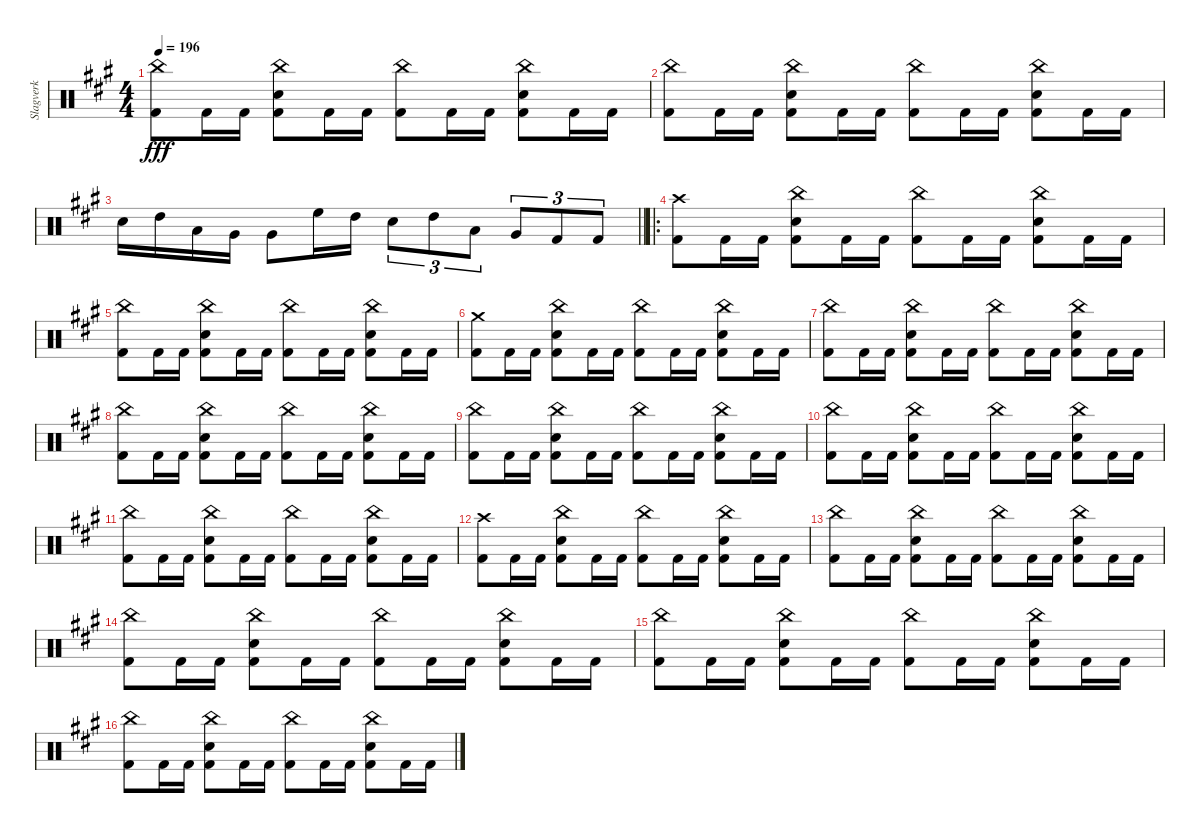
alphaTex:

\track ("Slagverk" "Slagverk") {instrument percussion}
\staff {score}
\articulation defaults
\ts (4 4)
\tempo 196
\clef neutral
\ks a
("China (hit)" "Kick (hit) 2").8{dy fff} "Kick (hit) 2".16 "Kick (hit) 2".16 ("China (hit)" "Snare (hit) 2" "Kick (hit) 2").8 "Kick (hit) 2".16 "Kick (hit) 2".16 ("China (hit)" "Kick (hit) 2").8 "Kick (hit) 2".16 "Kick (hit) 2".16 ("China (hit)" "Snare (hit) 2" "Kick (hit) 2").8 "Kick (hit) 2".16 "Kick (hit) 2".16 |
("China (hit)" "Kick (hit) 2").8 "Kick (hit) 2".16 "Kick (hit) 2".16 ("China (hit)" "Snare (hit) 2" "Kick (hit) 2").8 "Kick (hit) 2".16 "Kick (hit) 2".16 ("China (hit)" "Kick (hit) 2").8 "Kick (hit) 2".16 "Kick (hit) 2".16 ("China (hit)" "Snare (hit) 2" "Kick (hit) 2").8 "Kick (hit) 2".16 "Kick (hit) 2".16 |
\barLineRight lightlight "Snare (hit) 2".16 "High Tom (hit)".16 "Low Tom (hit)".16 "Very Low Tom (hit)".16 "Very Low Tom (hit)".8 "High Floor Tom (hit)".16 "High Tom (hit)".16 "Snare (hit) 2".8{tu (3 2)} "High Tom (hit)".8{tu (3 2)} "Low Tom (hit)".8{tu (3 2)} "Very Low Tom (hit)".8{tu (3 2)} "Kick (hit) 2".8{tu (3 2)} "Kick (hit) 2".8{tu (3 2)}
|
\ro
("Crash high (hit)" "Kick (hit) 2").8 "Kick (hit) 2".16 "Kick (hit) 2".16 ("China (hit)" "Snare (hit) 2" "Kick (hit) 2").8 "Kick (hit) 2".16 "Kick (hit) 2".16 ("China (hit)" "Kick (hit) 2").8 "Kick (hit) 2".16 "Kick (hit) 2".16 ("China (hit)" "Snare (hit) 2" "Kick (hit) 2").8 "Kick (hit) 2".16 "Kick (hit) 2".16 |
("China (hit)" "Kick (hit) 2").8 "Kick (hit) 2".16 "Kick (hit) 2".16 ("China (hit)" "Snare (hit) 2" "Kick (hit) 2").8 "Kick (hit) 2".16 "Kick (hit) 2".16 ("China (hit)" "Kick (hit) 2").8 "Kick (hit) 2".16 "Kick (hit) 2".16 ("China (hit)" "Snare (hit) 2" "Kick (hit) 2").8 "Kick (hit) 2".16 "Kick (hit) 2".16 |
("Crash medium (hit)" "Kick (hit) 2").8 "Kick (hit) 2".16 "Kick (hit) 2".16 ("China (hit)" "Snare (hit) 2" "Kick (hit) 2").8 "Kick (hit) 2".16 "Kick (hit) 2".16 ("China (hit)" "Kick (hit) 2").8 "Kick (hit) 2".16 "Kick (hit) 2".16 ("China (hit)" "Snare (hit) 2" "Kick (hit) 2").8 "Kick (hit) 2".16 "Kick (hit) 2".16 |
("China (hit)" "Kick (hit) 2").8 "Kick (hit) 2".16 "Kick (hit) 2".16 ("China (hit)" "Snare (hit) 2" "Kick (hit) 2").8 "Kick (hit) 2".16 "Kick (hit) 2".16 ("China (hit)" "Kick (hit) 2").8 "Kick (hit) 2".16 "Kick (hit) 2".16 ("China (hit)" "Snare (hit) 2" "Kick (hit) 2").8 "Kick (hit) 2".16 "Kick (hit) 2".16 |
("China (hit)" "Kick (hit) 2").8 "Kick (hit) 2".16 "Kick (hit) 2".16 ("China (hit)" "Snare (hit) 2" "Kick (hit) 2").8 "Kick (hit) 2".16 "Kick (hit) 2".16 ("China (hit)" "Kick (hit) 2").8 "Kick (hit) 2".16 "Kick (hit) 2".16 ("China (hit)" "Snare (hit) 2" "Kick (hit) 2").8 "Kick (hit) 2".16 "Kick (hit) 2".16 |
("China (hit)" "Kick (hit) 2").8 "Kick (hit) 2".16 "Kick (hit) 2".16 ("China (hit)" "Snare (hit) 2" "Kick (hit) 2").8 "Kick (hit) 2".16 "Kick (hit) 2".16 ("China (hit)" "Kick (hit) 2").8 "Kick (hit) 2".16 "Kick (hit) 2".16 ("China (hit)" "Snare (hit) 2" "Kick (hit) 2").8 "Kick (hit) 2".16 "Kick (hit) 2".16 |
("China (hit)" "Kick (hit) 2").8 "Kick (hit) 2".16 "Kick (hit) 2".16 ("China (hit)" "Snare (hit) 2" "Kick (hit) 2").8 "Kick (hit) 2".16 "Kick (hit) 2".16 ("China (hit)" "Kick (hit) 2").8 "Kick (hit) 2".16 "Kick (hit) 2".16 ("China (hit)" "Snare (hit) 2" "Kick (hit) 2").8 "Kick (hit) 2".16 "Kick (hit) 2".16 |
("China (hit)" "Kick (hit) 2").8 "Kick (hit) 2".16 "Kick (hit) 2".16 ("China (hit)" "Snare (hit) 2" "Kick (hit) 2").8 "Kick (hit) 2".16 "Kick (hit) 2".16 ("China (hit)" "Kick (hit) 2").8 "Kick (hit) 2".16 "Kick (hit) 2".16 ("China (hit)" "Snare (hit) 2" "Kick (hit) 2").8 "Kick (hit) 2".16 "Kick (hit) 2".16 |
("Crash high (hit)" "Kick (hit) 2").8 "Kick (hit) 2".16 "Kick (hit) 2".16 ("China (hit)" "Snare (hit) 2" "Kick (hit) 2").8 "Kick (hit) 2".16 "Kick (hit) 2".16 ("China (hit)" "Kick (hit) 2").8 "Kick (hit) 2".16 "Kick (hit) 2".16 ("China (hit)" "Snare (hit) 2" "Kick (hit) 2").8 "Kick (hit) 2".16 "Kick (hit) 2".16 |
("China (hit)" "Kick (hit) 2").8 "Kick (hit) 2".16 "Kick (hit) 2".16 ("China (hit)" "Snare (hit) 2" "Kick (hit) 2").8 "Kick (hit) 2".16 "Kick (hit) 2".16 ("China (hit)" "Kick (hit) 2").8 "Kick (hit) 2".16 "Kick (hit) 2".16 ("China (hit)" "Snare (hit) 2" "Kick (hit) 2").8 "Kick (hit) 2".16 "Kick (hit) 2".16 |
("China (hit)" "Kick (hit) 2").8 "Kick (hit) 2".16 "Kick (hit) 2".16 ("China (hit)" "Snare (hit) 2" "Kick (hit) 2").8 "Kick (hit) 2".16 "Kick (hit) 2".16 ("China (hit)" "Kick (hit) 2").8 "Kick (hit) 2".16 "Kick (hit) 2".16 ("China (hit)" "Snare (hit) 2" "Kick (hit) 2").8 "Kick (hit) 2".16 "Kick (hit) 2".16 |
("China (hit)" "Kick (hit) 2").8 "Kick (hit) 2".16 "Kick (hit) 2".16 ("China (hit)" "Snare (hit) 2" "Kick (hit) 2").8 "Kick (hit) 2".16 "Kick (hit) 2".16 ("China (hit)" "Kick (hit) 2").8 "Kick (hit) 2".16 "Kick (hit) 2".16 ("China (hit)" "Snare (hit) 2" "Kick (hit) 2").8 "Kick (hit) 2".16 "Kick (hit) 2".16 |
("China (hit)" "Kick (hit) 2").8 "Kick (hit) 2".16 "Kick (hit) 2".16 ("China (hit)" "Snare (hit) 2" "Kick (hit) 2").8 "Kick (hit) 2".16 "Kick (hit) 2".16 ("China (hit)" "Kick (hit) 2").8 "Kick (hit) 2".16 "Kick (hit) 2".16 ("China (hit)" "Snare (hit) 2" "Kick (hit) 2").8 "Kick (hit) 2".16 "Kick (hit) 2".16
